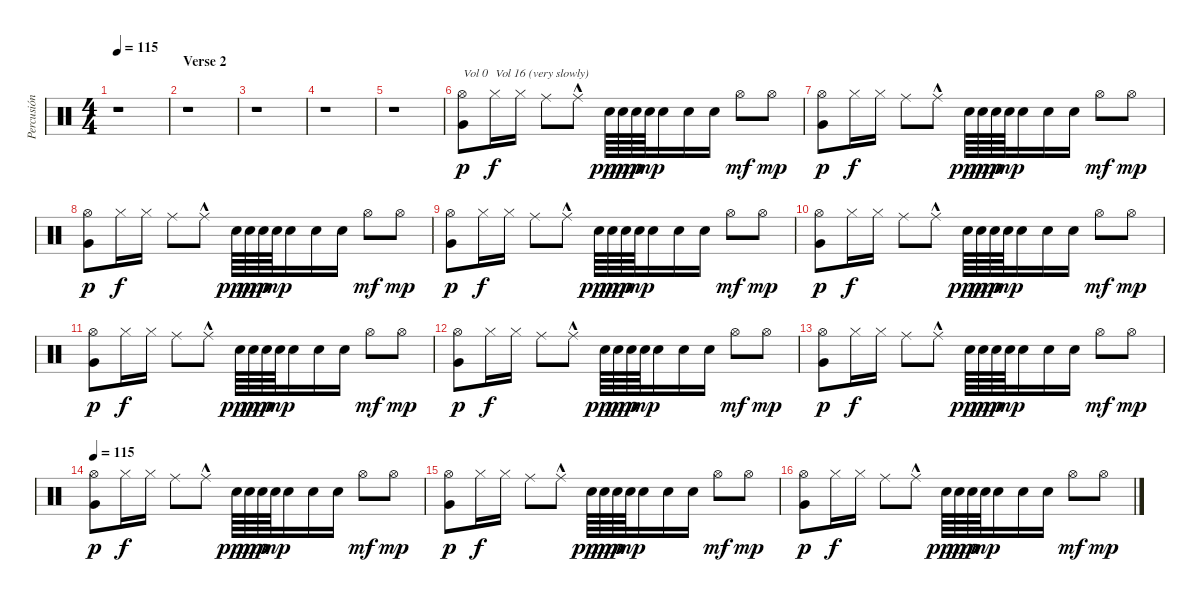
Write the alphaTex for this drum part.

\track ("Percusión" "Percusión") {instrument percussion}
\staff {score}
\articulation defaults
\ts (4 4)
\tempo 115
\clef neutral
\ks c
r.1{dy f} |
\section ("" "Verse 2")
r.1 |
r.1 |
r.1 |
r.1 |
("Hi-Hat (open)" "Very Low Tom (hit)").8{txt "Vol 0" dy p volume 0} "Hi-Hat (closed)".16{txt "Vol 16 (very slowly)" dy f volume 6} "Hi-Hat (closed)".16 "Ride (middle)".8 "Ride (middle)"{hac}.8 "Electric Snare (hit)".64{dy ppp} "Electric Snare (hit)".64{dy pp} "Electric Snare (hit)".64{dy p} "Electric Snare (hit)".64{dy mp} "Electric Snare (hit)".16 "Electric Snare (hit)".16 "Electric Snare (hit)".16 "Hi-Hat (open)".8{dy mf} "Hi-Hat (open)".8{dy mp} |
("Hi-Hat (open)" "Very Low Tom (hit)").8{dy p} "Hi-Hat (closed)".16{dy f} "Hi-Hat (closed)".16 "Ride (middle)".8 "Ride (middle)"{hac}.8 "Electric Snare (hit)".64{dy ppp} "Electric Snare (hit)".64{dy pp} "Electric Snare (hit)".64{dy p} "Electric Snare (hit)".64{dy mp} "Electric Snare (hit)".16 "Electric Snare (hit)".16 "Electric Snare (hit)".16 "Hi-Hat (open)".8{dy mf} "Hi-Hat (open)".8{dy mp} |
("Hi-Hat (open)" "Very Low Tom (hit)").8{dy p} "Hi-Hat (closed)".16{dy f} "Hi-Hat (closed)".16 "Ride (middle)".8 "Ride (middle)"{hac}.8 "Electric Snare (hit)".64{dy ppp} "Electric Snare (hit)".64{dy pp} "Electric Snare (hit)".64{dy p} "Electric Snare (hit)".64{dy mp} "Electric Snare (hit)".16 "Electric Snare (hit)".16 "Electric Snare (hit)".16 "Hi-Hat (open)".8{dy mf} "Hi-Hat (open)".8{dy mp} |
("Hi-Hat (open)" "Very Low Tom (hit)").8{dy p} "Hi-Hat (closed)".16{dy f} "Hi-Hat (closed)".16 "Ride (middle)".8 "Ride (middle)"{hac}.8 "Electric Snare (hit)".64{dy ppp} "Electric Snare (hit)".64{dy pp} "Electric Snare (hit)".64{dy p} "Electric Snare (hit)".64{dy mp} "Electric Snare (hit)".16 "Electric Snare (hit)".16 "Electric Snare (hit)".16 "Hi-Hat (open)".8{dy mf} "Hi-Hat (open)".8{dy mp} |
("Hi-Hat (open)" "Very Low Tom (hit)").8{dy p volume 11} "Hi-Hat (closed)".16{dy f} "Hi-Hat (closed)".16 "Ride (middle)".8 "Ride (middle)"{hac}.8 "Electric Snare (hit)".64{dy ppp} "Electric Snare (hit)".64{dy pp} "Electric Snare (hit)".64{dy p} "Electric Snare (hit)".64{dy mp} "Electric Snare (hit)".16 "Electric Snare (hit)".16 "Electric Snare (hit)".16 "Hi-Hat (open)".8{dy mf} "Hi-Hat (open)".8{dy mp} |
("Hi-Hat (open)" "Very Low Tom (hit)").8{dy p} "Hi-Hat (closed)".16{dy f} "Hi-Hat (closed)".16 "Ride (middle)".8 "Ride (middle)"{hac}.8 "Electric Snare (hit)".64{dy ppp} "Electric Snare (hit)".64{dy pp} "Electric Snare (hit)".64{dy p} "Electric Snare (hit)".64{dy mp} "Electric Snare (hit)".16 "Electric Snare (hit)".16 "Electric Snare (hit)".16 "Hi-Hat (open)".8{dy mf} "Hi-Hat (open)".8{dy mp} |
("Hi-Hat (open)" "Very Low Tom (hit)").8{dy p} "Hi-Hat (closed)".16{dy f} "Hi-Hat (closed)".16 "Ride (middle)".8 "Ride (middle)"{hac}.8 "Electric Snare (hit)".64{dy ppp} "Electric Snare (hit)".64{dy pp} "Electric Snare (hit)".64{dy p} "Electric Snare (hit)".64{dy mp} "Electric Snare (hit)".16 "Electric Snare (hit)".16 "Electric Snare (hit)".16 "Hi-Hat (open)".8{dy mf} "Hi-Hat (open)".8{dy mp} |
("Hi-Hat (open)" "Very Low Tom (hit)").8{dy p} "Hi-Hat (closed)".16{dy f} "Hi-Hat (closed)".16 "Ride (middle)".8 "Ride (middle)"{hac}.8 "Electric Snare (hit)".64{dy ppp} "Electric Snare (hit)".64{dy pp} "Electric Snare (hit)".64{dy p} "Electric Snare (hit)".64{dy mp} "Electric Snare (hit)".16 "Electric Snare (hit)".16 "Electric Snare (hit)".16 "Hi-Hat (open)".8{dy mf} "Hi-Hat (open)".8{dy mp} |
\tempo 115
("Hi-Hat (open)" "Very Low Tom (hit)").8{dy p volume 16} "Hi-Hat (closed)".16{dy f} "Hi-Hat (closed)".16 "Ride (middle)".8 "Ride (middle)"{hac}.8 "Electric Snare (hit)".64{dy ppp} "Electric Snare (hit)".64{dy pp} "Electric Snare (hit)".64{dy p} "Electric Snare (hit)".64{dy mp} "Electric Snare (hit)".16 "Electric Snare (hit)".16 "Electric Snare (hit)".16 "Hi-Hat (open)".8{dy mf} "Hi-Hat (open)".8{dy mp} |
("Hi-Hat (open)" "Very Low Tom (hit)").8{dy p} "Hi-Hat (closed)".16{dy f} "Hi-Hat (closed)".16 "Ride (middle)".8 "Ride (middle)"{hac}.8 "Electric Snare (hit)".64{dy ppp} "Electric Snare (hit)".64{dy pp} "Electric Snare (hit)".64{dy p} "Electric Snare (hit)".64{dy mp} "Electric Snare (hit)".16 "Electric Snare (hit)".16 "Electric Snare (hit)".16 "Hi-Hat (open)".8{dy mf} "Hi-Hat (open)".8{dy mp} |
("Hi-Hat (open)" "Very Low Tom (hit)").8{dy p} "Hi-Hat (closed)".16{dy f} "Hi-Hat (closed)".16 "Ride (middle)".8 "Ride (middle)"{hac}.8 "Electric Snare (hit)".64{dy ppp} "Electric Snare (hit)".64{dy pp} "Electric Snare (hit)".64{dy p} "Electric Snare (hit)".64{dy mp} "Electric Snare (hit)".16 "Electric Snare (hit)".16 "Electric Snare (hit)".16 "Hi-Hat (open)".8{dy mf} "Hi-Hat (open)".8{dy mp}
